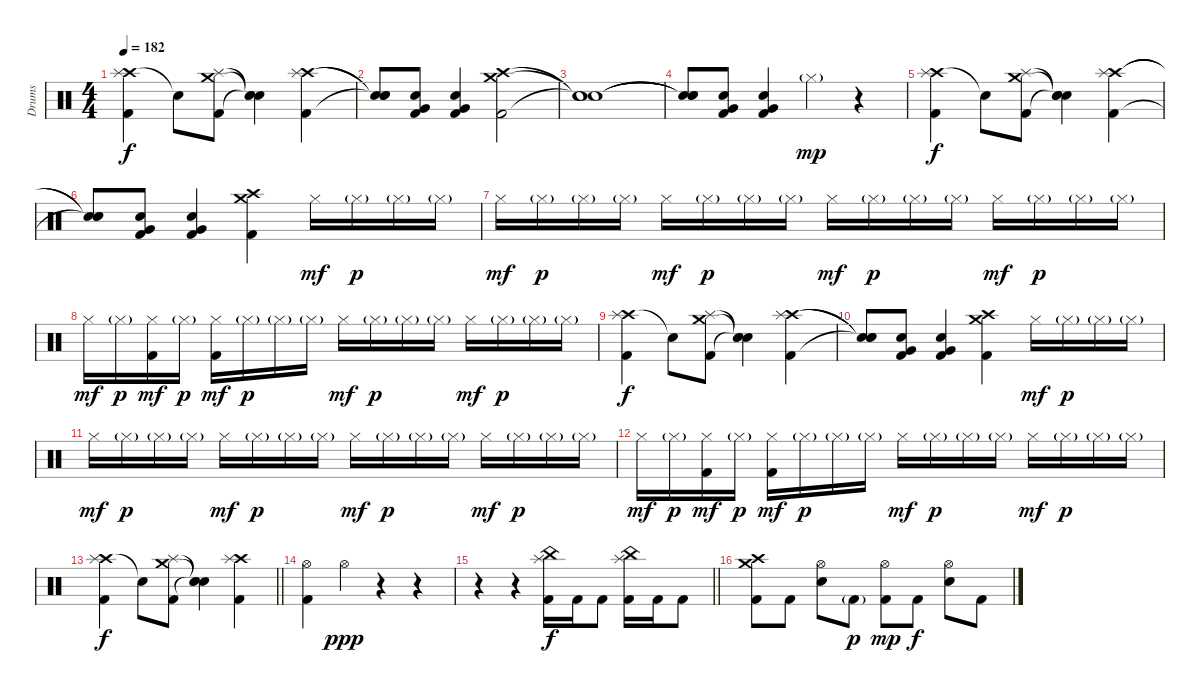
\track ("Drums" "Drums") {instrument percussion}
\staff {score}
\articulation defaults
\ts (4 4)
\tempo 182
\clef neutral
\ks c
("Crash high (hit)" "Splash (hit)" "Kick (hit) 2").4{dy f} "Snare (hit)"{t}.8 ("Crash medium (hit)" "Splash (hit)" "Kick (hit) 2").8 ("Snare (hit)"{t} "Snare (hit)"{t} "Snare (hit)"{t}).4 ("Crash high (hit)" "Splash (hit)" "Kick (hit) 2").4 |
("Snare (hit)"{t} "Snare (hit)"{t} "Snare (hit)"{t}).8 ("Very Low Tom (hit)" "Electric Snare (hit)" "Kick (hit) 2").8 ("Very Low Tom (hit)" "Electric Snare (hit)" "Kick (hit) 2").4 ("Crash high (hit)" "Crash medium (hit)" "Kick (hit) 2").2 |
("Snare (hit)"{t} "Snare (hit)"{t} "Snare (hit)"{t}).1 |
("Snare (hit)"{t} "Snare (hit)"{t} "Snare (hit)"{t}).8 ("Very Low Tom (hit)" "Electric Snare (hit)" "Kick (hit) 2").8 ("Very Low Tom (hit)" "Electric Snare (hit)" "Kick (hit) 2").4 "Hi-Hat (closed)"{g}.4{dy mp} r.4 |
("Crash high (hit)" "Splash (hit)" "Kick (hit) 2").4{dy f} "Snare (hit)"{t}.8 ("Crash medium (hit)" "Splash (hit)" "Kick (hit) 2").8 ("Snare (hit)"{t} "Snare (hit)"{t} "Snare (hit)"{t}).4 ("Crash high (hit)" "Splash (hit)" "Kick (hit) 2").4 |
("Snare (hit)"{t} "Snare (hit)"{t} "Snare (hit)"{t}).8 ("Very Low Tom (hit)" "Electric Snare (hit)" "Kick (hit) 2").8 ("Very Low Tom (hit)" "Electric Snare (hit)" "Kick (hit) 2").4 ("Crash high (hit)" "Crash medium (hit)" "Kick (hit) 2").4 "Hi-Hat (closed)".16{dy mf} "Hi-Hat (closed)"{g}.16{dy p} "Hi-Hat (closed)"{g}.16 "Hi-Hat (closed)"{g}.16 |
"Hi-Hat (closed)".16{dy mf} "Hi-Hat (closed)"{g}.16{dy p} "Hi-Hat (closed)"{g}.16 "Hi-Hat (closed)"{g}.16 "Hi-Hat (closed)".16{dy mf} "Hi-Hat (closed)"{g}.16{dy p} "Hi-Hat (closed)"{g}.16 "Hi-Hat (closed)"{g}.16 "Hi-Hat (closed)".16{dy mf} "Hi-Hat (closed)"{g}.16{dy p} "Hi-Hat (closed)"{g}.16 "Hi-Hat (closed)"{g}.16 "Hi-Hat (closed)".16{dy mf} "Hi-Hat (closed)"{g}.16{dy p} "Hi-Hat (closed)"{g}.16 "Hi-Hat (closed)"{g}.16 |
"Hi-Hat (closed)".16{dy mf} "Hi-Hat (closed)"{g}.16{dy p} ("Hi-Hat (closed)" "Kick (hit) 2").16{dy mf} "Hi-Hat (closed)"{g}.16{dy p} ("Hi-Hat (closed)" "Kick (hit) 2").16{dy mf} "Hi-Hat (closed)"{g}.16{dy p} "Hi-Hat (closed)"{g}.16 "Hi-Hat (closed)"{g}.16 "Hi-Hat (closed)".16{dy mf} "Hi-Hat (closed)"{g}.16{dy p} "Hi-Hat (closed)"{g}.16 "Hi-Hat (closed)"{g}.16 "Hi-Hat (closed)".16{dy mf} "Hi-Hat (closed)"{g}.16{dy p} "Hi-Hat (closed)"{g}.16 "Hi-Hat (closed)"{g}.16 |
("Crash high (hit)" "Splash (hit)" "Kick (hit) 2").4{dy f} "Snare (hit)"{t}.8 ("Crash medium (hit)" "Splash (hit)" "Kick (hit) 2").8 ("Snare (hit)"{t} "Snare (hit)"{t} "Snare (hit)"{t}).4 ("Crash high (hit)" "Splash (hit)" "Kick (hit) 2").4 |
("Snare (hit)"{t} "Snare (hit)"{t} "Snare (hit)"{t}).8 ("Very Low Tom (hit)" "Electric Snare (hit)" "Kick (hit) 2").8 ("Very Low Tom (hit)" "Electric Snare (hit)" "Kick (hit) 2").4 ("Crash high (hit)" "Crash medium (hit)" "Kick (hit) 2").4 "Hi-Hat (closed)".16{dy mf} "Hi-Hat (closed)"{g}.16{dy p} "Hi-Hat (closed)"{g}.16 "Hi-Hat (closed)"{g}.16 |
"Hi-Hat (closed)".16{dy mf} "Hi-Hat (closed)"{g}.16{dy p} "Hi-Hat (closed)"{g}.16 "Hi-Hat (closed)"{g}.16 "Hi-Hat (closed)".16{dy mf} "Hi-Hat (closed)"{g}.16{dy p} "Hi-Hat (closed)"{g}.16 "Hi-Hat (closed)"{g}.16 "Hi-Hat (closed)".16{dy mf} "Hi-Hat (closed)"{g}.16{dy p} "Hi-Hat (closed)"{g}.16 "Hi-Hat (closed)"{g}.16 "Hi-Hat (closed)".16{dy mf} "Hi-Hat (closed)"{g}.16{dy p} "Hi-Hat (closed)"{g}.16 "Hi-Hat (closed)"{g}.16 |
"Hi-Hat (closed)".16{dy mf} "Hi-Hat (closed)"{g}.16{dy p} ("Hi-Hat (closed)" "Kick (hit) 2").16{dy mf} "Hi-Hat (closed)"{g}.16{dy p} ("Hi-Hat (closed)" "Kick (hit) 2").16{dy mf} "Hi-Hat (closed)"{g}.16{dy p} "Hi-Hat (closed)"{g}.16 "Hi-Hat (closed)"{g}.16 "Hi-Hat (closed)".16{dy mf} "Hi-Hat (closed)"{g}.16{dy p} "Hi-Hat (closed)"{g}.16 "Hi-Hat (closed)"{g}.16 "Hi-Hat (closed)".16{dy mf} "Hi-Hat (closed)"{g}.16{dy p} "Hi-Hat (closed)"{g}.16 "Hi-Hat (closed)"{g}.16 |
\barLineRight lightlight
("Crash high (hit)" "Splash (hit)" "Kick (hit) 2").4{dy f} "Snare (hit)"{t}.8 ("Crash medium (hit)" "Splash (hit)" "Kick (hit) 2").8 ("Snare (hit)"{t} "Snare (hit)"{t} "Snare (hit)"{t}).4 ("Crash high (hit)" "Splash (hit)" "Kick (hit) 2").4 |
("Hi-Hat (open)" "Kick (hit) 2").4 "Hi-Hat (open)".4{dy ppp} r.4 r.4 |
\barLineRight lightlight
r.4 r.4 ("China (hit)" "Splash (hit)" "Kick (hit) 2").16{dy f} "Kick (hit) 2".16 "Kick (hit) 2".8 ("China (hit)" "Splash (hit)" "Kick (hit) 2").16 "Kick (hit) 2".16 "Kick (hit) 2".8 |
("Crash high (hit)" "Crash medium (hit)" "Kick (hit) 2").8 "Kick (hit) 2".8 ("Hi-Hat (open)" "Electric Snare (hit)").8 "Kick (hit) 2"{g}.8{dy p} ("Hi-Hat (open)" "Kick (hit) 2").8{dy mp} "Kick (hit) 2".8{dy f} ("Hi-Hat (open)" "Electric Snare (hit)").8 "Kick (hit) 2".8
